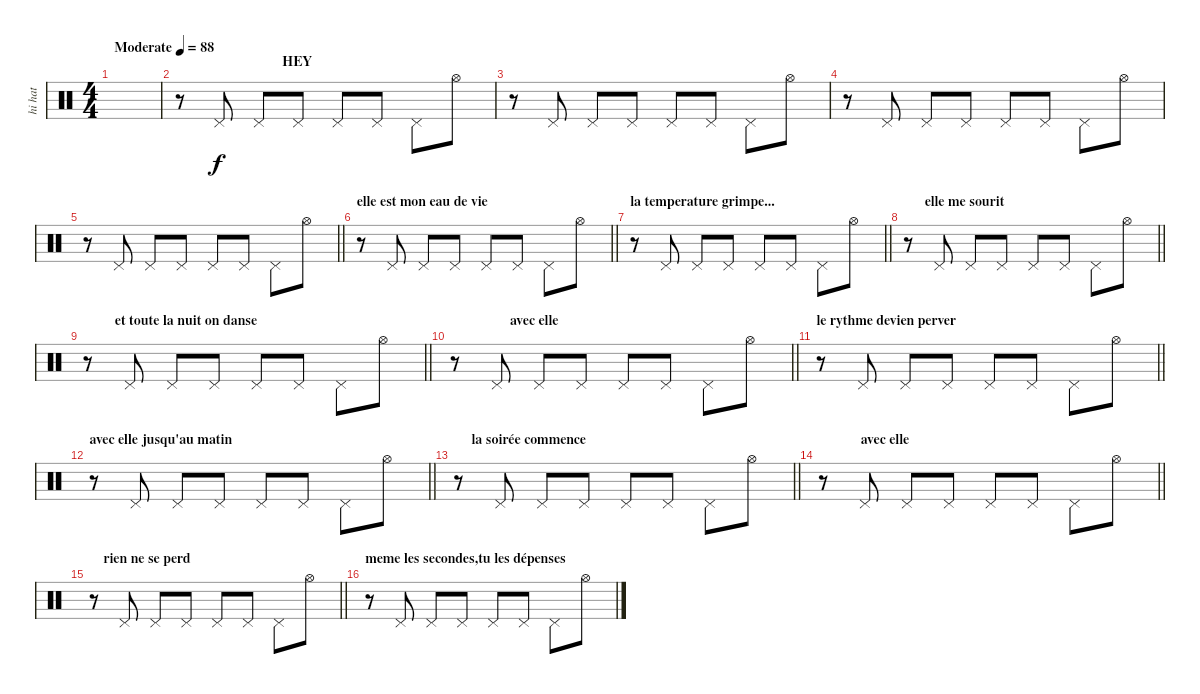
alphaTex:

\track ("hi hat" "hi hat") {instrument percussion}
\staff {score}
\articulation defaults
\ts (4 4)
\section ("" "                                                HEY")
\tempo (88 "Moderate")
\clef neutral
\ks c
|
r.8 "Pedal Hi-Hat (hit)".8 "Pedal Hi-Hat (hit)".8 "Pedal Hi-Hat (hit)".8 "Pedal Hi-Hat (hit)".8 "Pedal Hi-Hat (hit)".8 "Pedal Hi-Hat (hit)".8 "Hi-Hat (open)".8 |
r.8 "Pedal Hi-Hat (hit)".8 "Pedal Hi-Hat (hit)".8 "Pedal Hi-Hat (hit)".8 "Pedal Hi-Hat (hit)".8 "Pedal Hi-Hat (hit)".8 "Pedal Hi-Hat (hit)".8 "Hi-Hat (open)".8 |
r.8 "Pedal Hi-Hat (hit)".8 "Pedal Hi-Hat (hit)".8 "Pedal Hi-Hat (hit)".8 "Pedal Hi-Hat (hit)".8 "Pedal Hi-Hat (hit)".8 "Pedal Hi-Hat (hit)".8 "Hi-Hat (open)".8 |
\barLineRight lightlight
r.8 "Pedal Hi-Hat (hit)".8 "Pedal Hi-Hat (hit)".8 "Pedal Hi-Hat (hit)".8 "Pedal Hi-Hat (hit)".8 "Pedal Hi-Hat (hit)".8 "Pedal Hi-Hat (hit)".8 "Hi-Hat (open)".8 |
\section ("" "elle est mon eau de vie")
\barLineRight lightlight
r.8 "Pedal Hi-Hat (hit)".8 "Pedal Hi-Hat (hit)".8 "Pedal Hi-Hat (hit)".8 "Pedal Hi-Hat (hit)".8 "Pedal Hi-Hat (hit)".8 "Pedal Hi-Hat (hit)".8 "Hi-Hat (open)".8 |
\section ("" "la temperature grimpe...")
\barLineRight lightlight
r.8 "Pedal Hi-Hat (hit)".8 "Pedal Hi-Hat (hit)".8 "Pedal Hi-Hat (hit)".8 "Pedal Hi-Hat (hit)".8 "Pedal Hi-Hat (hit)".8 "Pedal Hi-Hat (hit)".8 "Hi-Hat (open)".8 |
\section ("" "      elle me sourit")
\barLineRight lightlight
r.8 "Pedal Hi-Hat (hit)".8 "Pedal Hi-Hat (hit)".8 "Pedal Hi-Hat (hit)".8 "Pedal Hi-Hat (hit)".8 "Pedal Hi-Hat (hit)".8 "Pedal Hi-Hat (hit)".8 "Hi-Hat (open)".8 |
\section ("" "         et toute la nuit on danse")
\barLineRight lightlight
r.8 "Pedal Hi-Hat (hit)".8 "Pedal Hi-Hat (hit)".8 "Pedal Hi-Hat (hit)".8 "Pedal Hi-Hat (hit)".8 "Pedal Hi-Hat (hit)".8 "Pedal Hi-Hat (hit)".8 "Hi-Hat (open)".8 |
\section ("" "                 avec elle")
\barLineRight lightlight
r.8 "Pedal Hi-Hat (hit)".8 "Pedal Hi-Hat (hit)".8 "Pedal Hi-Hat (hit)".8 "Pedal Hi-Hat (hit)".8 "Pedal Hi-Hat (hit)".8 "Pedal Hi-Hat (hit)".8 "Hi-Hat (open)".8 |
\section ("" "le rythme devien perver")
\barLineRight lightlight
r.8 "Pedal Hi-Hat (hit)".8 "Pedal Hi-Hat (hit)".8 "Pedal Hi-Hat (hit)".8 "Pedal Hi-Hat (hit)".8 "Pedal Hi-Hat (hit)".8 "Pedal Hi-Hat (hit)".8 "Hi-Hat (open)".8 |
\section ("" "avec elle jusqu'au matin")
\barLineRight lightlight
r.8 "Pedal Hi-Hat (hit)".8 "Pedal Hi-Hat (hit)".8 "Pedal Hi-Hat (hit)".8 "Pedal Hi-Hat (hit)".8 "Pedal Hi-Hat (hit)".8 "Pedal Hi-Hat (hit)".8 "Hi-Hat (open)".8 |
\section ("" "     la soirée commence")
\barLineRight lightlight
r.8 "Pedal Hi-Hat (hit)".8 "Pedal Hi-Hat (hit)".8 "Pedal Hi-Hat (hit)".8 "Pedal Hi-Hat (hit)".8 "Pedal Hi-Hat (hit)".8 "Pedal Hi-Hat (hit)".8 "Hi-Hat (open)".8 |
\section ("" "            avec elle")
\barLineRight lightlight
r.8 "Pedal Hi-Hat (hit)".8 "Pedal Hi-Hat (hit)".8 "Pedal Hi-Hat (hit)".8 "Pedal Hi-Hat (hit)".8 "Pedal Hi-Hat (hit)".8 "Pedal Hi-Hat (hit)".8 "Hi-Hat (open)".8 |
\section ("" "    rien ne se perd")
\barLineRight lightlight
r.8 "Pedal Hi-Hat (hit)".8 "Pedal Hi-Hat (hit)".8 "Pedal Hi-Hat (hit)".8 "Pedal Hi-Hat (hit)".8 "Pedal Hi-Hat (hit)".8 "Pedal Hi-Hat (hit)".8 "Hi-Hat (open)".8 |
\section ("" "meme les secondes,tu les dépenses")
r.8 "Pedal Hi-Hat (hit)".8 "Pedal Hi-Hat (hit)".8 "Pedal Hi-Hat (hit)".8 "Pedal Hi-Hat (hit)".8 "Pedal Hi-Hat (hit)".8 "Pedal Hi-Hat (hit)".8 "Hi-Hat (open)".8
